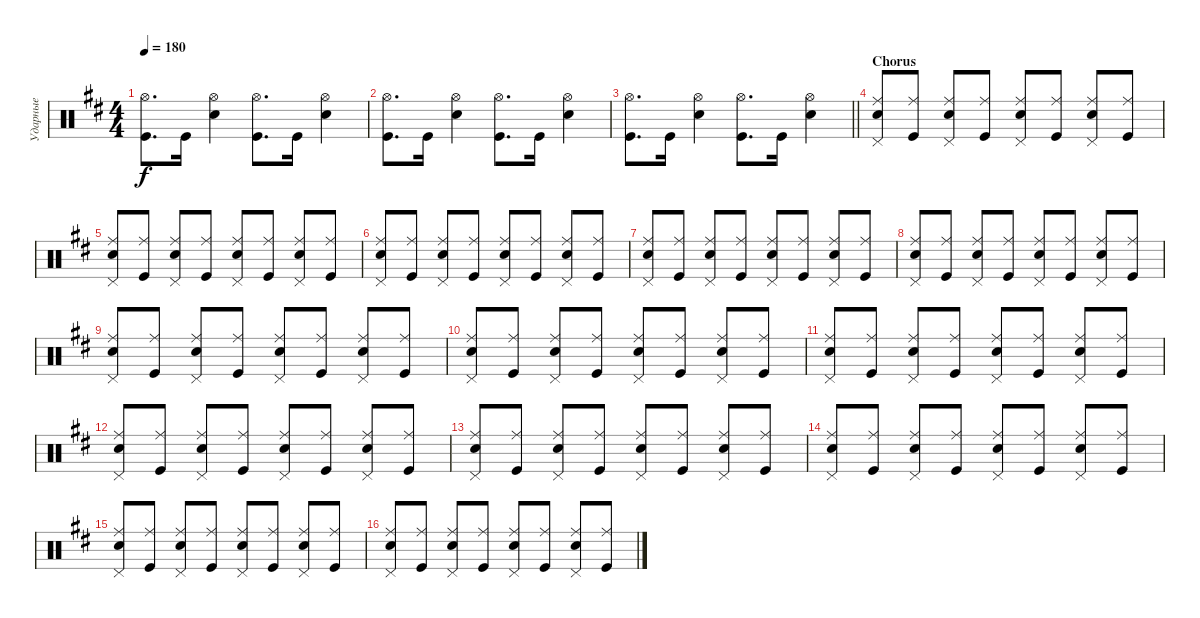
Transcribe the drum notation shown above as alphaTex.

\track ("Ударные" "Ударные") {instrument percussion}
\staff {score}
\articulation defaults
\ts (4 4)
\tempo 180
\clef neutral
\ks bminor
("Hi-Hat (open)" "Kick (hit)").8{d dy f} "Kick (hit)".16 ("Hi-Hat (open)" "Snare (hit) 2").4 ("Kick (hit)" "Hi-Hat (open)").8{d} "Kick (hit)".16 ("Snare (hit) 2" "Hi-Hat (open)").4 |
("Hi-Hat (open)" "Kick (hit)").8{d} "Kick (hit)".16 ("Hi-Hat (open)" "Snare (hit) 2").4 ("Kick (hit)" "Hi-Hat (open)").8{d} "Kick (hit)".16 ("Snare (hit) 2" "Hi-Hat (open)").4 |
\barLineRight lightlight
("Hi-Hat (open)" "Kick (hit)").8{d} "Kick (hit)".16 ("Hi-Hat (open)" "Snare (hit) 2").4 ("Kick (hit)" "Hi-Hat (open)").8{d} "Kick (hit)".16 ("Snare (hit) 2" "Hi-Hat (open)").4 |
\section ("" "Chorus")
("Ride (middle)" "Snare (hit) 2" "Pedal Hi-Hat (hit)").8 ("Kick (hit)" "Ride (middle)").8 ("Pedal Hi-Hat (hit)" "Snare (hit) 2" "Ride (middle)").8 ("Kick (hit)" "Ride (middle)").8 ("Pedal Hi-Hat (hit)" "Snare (hit) 2" "Ride (middle)").8 ("Kick (hit)" "Ride (middle)").8 ("Pedal Hi-Hat (hit)" "Snare (hit) 2" "Ride (middle)").8 ("Kick (hit)" "Ride (middle)").8 |
("Ride (middle)" "Snare (hit) 2" "Pedal Hi-Hat (hit)").8 ("Kick (hit)" "Ride (middle)").8 ("Pedal Hi-Hat (hit)" "Snare (hit) 2" "Ride (middle)").8 ("Kick (hit)" "Ride (middle)").8 ("Pedal Hi-Hat (hit)" "Snare (hit) 2" "Ride (middle)").8 ("Kick (hit)" "Ride (middle)").8 ("Pedal Hi-Hat (hit)" "Snare (hit) 2" "Ride (middle)").8 ("Kick (hit)" "Ride (middle)").8 |
("Ride (middle)" "Snare (hit) 2" "Pedal Hi-Hat (hit)").8 ("Kick (hit)" "Ride (middle)").8 ("Pedal Hi-Hat (hit)" "Snare (hit) 2" "Ride (middle)").8 ("Kick (hit)" "Ride (middle)").8 ("Pedal Hi-Hat (hit)" "Snare (hit) 2" "Ride (middle)").8 ("Kick (hit)" "Ride (middle)").8 ("Pedal Hi-Hat (hit)" "Snare (hit) 2" "Ride (middle)").8 ("Kick (hit)" "Ride (middle)").8 |
("Ride (middle)" "Snare (hit) 2" "Pedal Hi-Hat (hit)").8 ("Kick (hit)" "Ride (middle)").8 ("Pedal Hi-Hat (hit)" "Snare (hit) 2" "Ride (middle)").8 ("Kick (hit)" "Ride (middle)").8 ("Pedal Hi-Hat (hit)" "Snare (hit) 2" "Ride (middle)").8 ("Kick (hit)" "Ride (middle)").8 ("Pedal Hi-Hat (hit)" "Snare (hit) 2" "Ride (middle)").8 ("Kick (hit)" "Ride (middle)").8 |
("Ride (middle)" "Snare (hit) 2" "Pedal Hi-Hat (hit)").8 ("Kick (hit)" "Ride (middle)").8 ("Pedal Hi-Hat (hit)" "Snare (hit) 2" "Ride (middle)").8 ("Kick (hit)" "Ride (middle)").8 ("Pedal Hi-Hat (hit)" "Snare (hit) 2" "Ride (middle)").8 ("Kick (hit)" "Ride (middle)").8 ("Pedal Hi-Hat (hit)" "Snare (hit) 2" "Ride (middle)").8 ("Kick (hit)" "Ride (middle)").8 |
("Ride (middle)" "Snare (hit) 2" "Pedal Hi-Hat (hit)").8 ("Kick (hit)" "Ride (middle)").8 ("Pedal Hi-Hat (hit)" "Snare (hit) 2" "Ride (middle)").8 ("Kick (hit)" "Ride (middle)").8 ("Pedal Hi-Hat (hit)" "Snare (hit) 2" "Ride (middle)").8 ("Kick (hit)" "Ride (middle)").8 ("Pedal Hi-Hat (hit)" "Snare (hit) 2" "Ride (middle)").8 ("Kick (hit)" "Ride (middle)").8 |
("Ride (middle)" "Snare (hit) 2" "Pedal Hi-Hat (hit)").8 ("Kick (hit)" "Ride (middle)").8 ("Pedal Hi-Hat (hit)" "Snare (hit) 2" "Ride (middle)").8 ("Kick (hit)" "Ride (middle)").8 ("Pedal Hi-Hat (hit)" "Snare (hit) 2" "Ride (middle)").8 ("Kick (hit)" "Ride (middle)").8 ("Pedal Hi-Hat (hit)" "Snare (hit) 2" "Ride (middle)").8 ("Kick (hit)" "Ride (middle)").8 |
("Ride (middle)" "Snare (hit) 2" "Pedal Hi-Hat (hit)").8 ("Kick (hit)" "Ride (middle)").8 ("Pedal Hi-Hat (hit)" "Snare (hit) 2" "Ride (middle)").8 ("Kick (hit)" "Ride (middle)").8 ("Pedal Hi-Hat (hit)" "Snare (hit) 2" "Ride (middle)").8 ("Kick (hit)" "Ride (middle)").8 ("Pedal Hi-Hat (hit)" "Snare (hit) 2" "Ride (middle)").8 ("Kick (hit)" "Ride (middle)").8 |
("Ride (middle)" "Snare (hit) 2" "Pedal Hi-Hat (hit)").8 ("Kick (hit)" "Ride (middle)").8 ("Pedal Hi-Hat (hit)" "Snare (hit) 2" "Ride (middle)").8 ("Kick (hit)" "Ride (middle)").8 ("Pedal Hi-Hat (hit)" "Snare (hit) 2" "Ride (middle)").8 ("Kick (hit)" "Ride (middle)").8 ("Pedal Hi-Hat (hit)" "Snare (hit) 2" "Ride (middle)").8 ("Kick (hit)" "Ride (middle)").8 |
("Ride (middle)" "Snare (hit) 2" "Pedal Hi-Hat (hit)").8 ("Kick (hit)" "Ride (middle)").8 ("Pedal Hi-Hat (hit)" "Snare (hit) 2" "Ride (middle)").8 ("Kick (hit)" "Ride (middle)").8 ("Pedal Hi-Hat (hit)" "Snare (hit) 2" "Ride (middle)").8 ("Kick (hit)" "Ride (middle)").8 ("Pedal Hi-Hat (hit)" "Snare (hit) 2" "Ride (middle)").8 ("Kick (hit)" "Ride (middle)").8 |
("Ride (middle)" "Snare (hit) 2" "Pedal Hi-Hat (hit)").8 ("Kick (hit)" "Ride (middle)").8 ("Pedal Hi-Hat (hit)" "Snare (hit) 2" "Ride (middle)").8 ("Kick (hit)" "Ride (middle)").8 ("Pedal Hi-Hat (hit)" "Snare (hit) 2" "Ride (middle)").8 ("Kick (hit)" "Ride (middle)").8 ("Pedal Hi-Hat (hit)" "Snare (hit) 2" "Ride (middle)").8 ("Kick (hit)" "Ride (middle)").8 |
("Ride (middle)" "Snare (hit) 2" "Pedal Hi-Hat (hit)").8 ("Kick (hit)" "Ride (middle)").8 ("Pedal Hi-Hat (hit)" "Snare (hit) 2" "Ride (middle)").8 ("Kick (hit)" "Ride (middle)").8 ("Pedal Hi-Hat (hit)" "Snare (hit) 2" "Ride (middle)").8 ("Kick (hit)" "Ride (middle)").8 ("Pedal Hi-Hat (hit)" "Snare (hit) 2" "Ride (middle)").8 ("Kick (hit)" "Ride (middle)").8 |
("Ride (middle)" "Snare (hit) 2" "Pedal Hi-Hat (hit)").8 ("Kick (hit)" "Ride (middle)").8 ("Pedal Hi-Hat (hit)" "Snare (hit) 2" "Ride (middle)").8 ("Kick (hit)" "Ride (middle)").8 ("Pedal Hi-Hat (hit)" "Snare (hit) 2" "Ride (middle)").8 ("Kick (hit)" "Ride (middle)").8 ("Pedal Hi-Hat (hit)" "Snare (hit) 2" "Ride (middle)").8 ("Kick (hit)" "Ride (middle)").8
